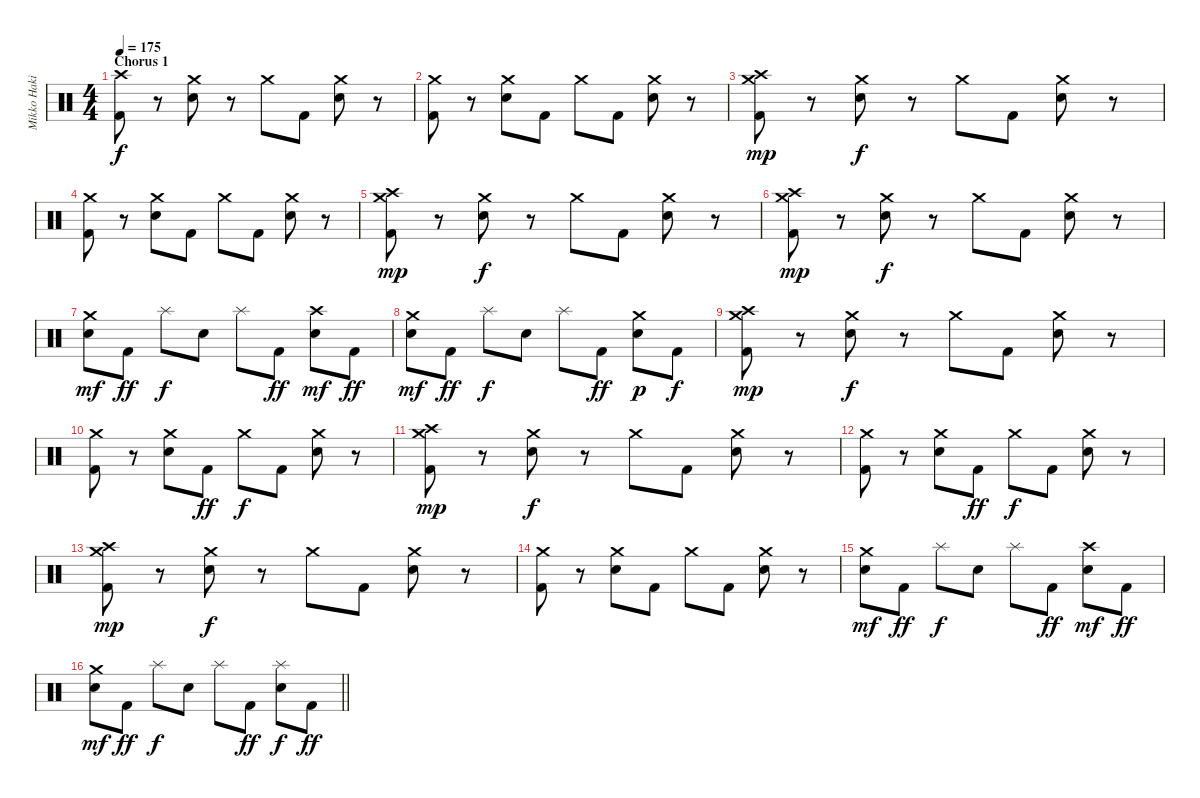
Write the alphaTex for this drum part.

\track ("Mikko Hakila - Drums" "Mikko Haki") {instrument percussion}
\staff {score}
\articulation defaults
\ts (4 4)
\section ("" "Chorus 1")
\tempo 175
\clef neutral
\ks c
("Crash high (hit)" "Kick (hit) 2").8{dy f} r.8 ("Crash medium (hit)" "Electric Snare (hit)").8 r.8 "Crash medium (hit)".8 "Kick (hit) 2".8 ("Crash medium (hit)" "Electric Snare (hit)").8 r.8 |
("Crash medium (hit)" "Kick (hit) 2").8 r.8 ("Crash medium (hit)" "Electric Snare (hit)").8 "Kick (hit) 2".8 "Crash medium (hit)".8 "Kick (hit) 2".8 ("Crash medium (hit)" "Electric Snare (hit)").8 r.8 |
("Crash medium (hit)" "Crash high (hit)" "Kick (hit) 2").8{dy mp} r.8 ("Crash medium (hit)" "Electric Snare (hit)").8{dy f} r.8 "Crash medium (hit)".8 "Kick (hit) 2".8 ("Crash medium (hit)" "Electric Snare (hit)").8 r.8 |
("Crash medium (hit)" "Kick (hit) 2").8 r.8 ("Crash medium (hit)" "Electric Snare (hit)").8 "Kick (hit) 2".8 "Crash medium (hit)".8 "Kick (hit) 2".8 ("Crash medium (hit)" "Electric Snare (hit)").8 r.8 |
("Crash medium (hit)" "Crash high (hit)" "Kick (hit) 2").8{dy mp} r.8 ("Crash medium (hit)" "Electric Snare (hit)").8{dy f} r.8 "Crash medium (hit)".8 "Kick (hit) 2".8 ("Crash medium (hit)" "Electric Snare (hit)").8 r.8 |
("Crash medium (hit)" "Crash high (hit)" "Kick (hit) 2").8{dy mp} r.8 ("Crash medium (hit)" "Electric Snare (hit)").8{dy f} r.8 "Crash medium (hit)".8 "Kick (hit) 2".8 ("Crash medium (hit)" "Electric Snare (hit)").8 r.8 |
("Crash medium (hit)" "Electric Snare (hit)").8{dy mf} "Kick (hit) 2".8{dy ff} "Splash (hit)".8{dy f} "Electric Snare (hit)".8 "Splash (hit)".8 "Kick (hit) 2".8{dy ff} ("Crash high (hit)" "Electric Snare (hit)").8{dy mf} "Kick (hit) 2".8{dy ff} |
("Crash medium (hit)" "Electric Snare (hit)").8{dy mf} "Kick (hit) 2".8{dy ff} "Splash (hit)".8{dy f} "Electric Snare (hit)".8 "Splash (hit)".8 "Kick (hit) 2".8{dy ff} ("Crash medium (hit)" "Electric Snare (hit)").8{dy p} "Kick (hit) 2".8{dy f} |
("Crash medium (hit)" "Crash high (hit)" "Kick (hit) 2").8{dy mp} r.8 ("Crash medium (hit)" "Electric Snare (hit)").8{dy f} r.8 "Crash medium (hit)".8 "Kick (hit) 2".8 ("Crash medium (hit)" "Electric Snare (hit)").8 r.8 |
("Crash medium (hit)" "Kick (hit) 2").8 r.8 ("Crash medium (hit)" "Electric Snare (hit)").8 "Kick (hit) 2".8{dy ff} "Crash medium (hit)".8{dy f} "Kick (hit) 2".8 ("Crash medium (hit)" "Electric Snare (hit)").8 r.8 |
("Crash medium (hit)" "Crash high (hit)" "Kick (hit) 2").8{dy mp} r.8 ("Crash medium (hit)" "Electric Snare (hit)").8{dy f} r.8 "Crash medium (hit)".8 "Kick (hit) 2".8 ("Crash medium (hit)" "Electric Snare (hit)").8 r.8 |
("Crash medium (hit)" "Kick (hit) 2").8 r.8 ("Crash medium (hit)" "Electric Snare (hit)").8 "Kick (hit) 2".8{dy ff} "Crash medium (hit)".8{dy f} "Kick (hit) 2".8 ("Crash medium (hit)" "Electric Snare (hit)").8 r.8 |
("Crash medium (hit)" "Crash high (hit)" "Kick (hit) 2").8{dy mp} r.8 ("Crash medium (hit)" "Electric Snare (hit)").8{dy f} r.8 "Crash medium (hit)".8 "Kick (hit) 2".8 ("Crash medium (hit)" "Electric Snare (hit)").8 r.8 |
("Crash medium (hit)" "Kick (hit) 2").8 r.8 ("Crash medium (hit)" "Electric Snare (hit)").8 "Kick (hit) 2".8 "Crash medium (hit)".8 "Kick (hit) 2".8 ("Crash medium (hit)" "Electric Snare (hit)").8 r.8 |
("Crash medium (hit)" "Electric Snare (hit)").8{dy mf} "Kick (hit) 2".8{dy ff} "Splash (hit)".8{dy f} "Electric Snare (hit)".8 "Splash (hit)".8 "Kick (hit) 2".8{dy ff} ("Crash high (hit)" "Electric Snare (hit)").8{dy mf} "Kick (hit) 2".8{dy ff} |
\barLineRight lightlight
("Crash medium (hit)" "Electric Snare (hit)").8{dy mf} "Kick (hit) 2".8{dy ff} "Splash (hit)".8{dy f} "Electric Snare (hit)".8 "Splash (hit)".8 "Kick (hit) 2".8{dy ff} ("Splash (hit)" "Electric Snare (hit)").8{dy f} "Kick (hit) 2".8{dy ff}
